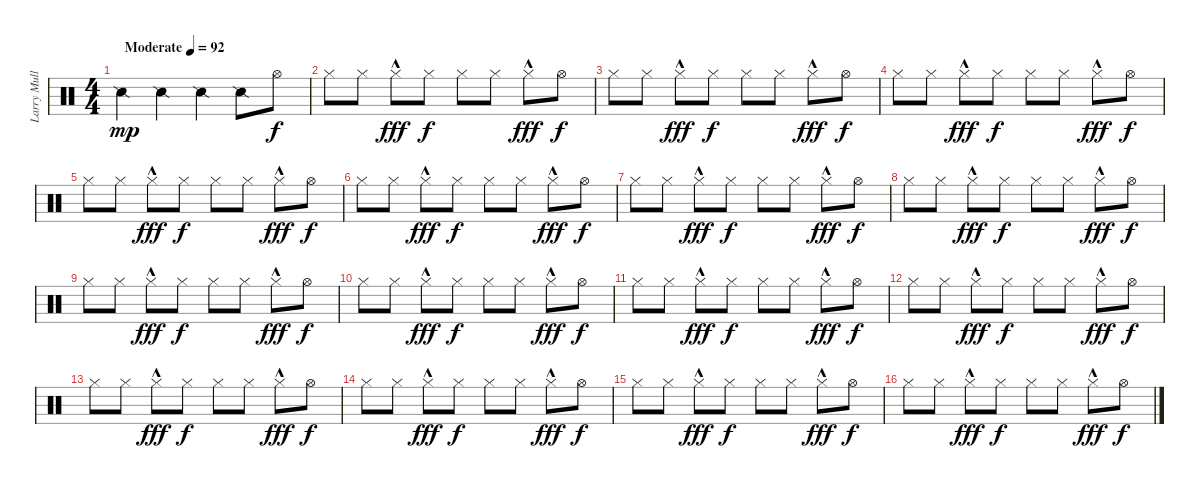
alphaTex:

\track ("Larry Mullen Junior" "Larry Mull") {instrument percussion}
\staff {score}
\articulation defaults
\ts (4 4)
\tempo (92 "Moderate")
\clef neutral
\ks c "Snare (side stick) 2".4{dy mp} "Snare (side stick) 2".4 "Snare (side stick) 2".4 "Snare (side stick) 2".8 "Hi-Hat (open)".8{dy f}
|
"Hi-Hat (closed)".8 "Hi-Hat (closed)".8 "Hi-Hat (closed)"{hac}.8{dy fff} "Hi-Hat (closed)".8{dy f} "Hi-Hat (closed)".8 "Hi-Hat (closed)".8 "Hi-Hat (closed)"{hac}.8{dy fff} "Hi-Hat (open)".8{dy f} |
"Hi-Hat (closed)".8 "Hi-Hat (closed)".8 "Hi-Hat (closed)"{hac}.8{dy fff} "Hi-Hat (closed)".8{dy f} "Hi-Hat (closed)".8 "Hi-Hat (closed)".8 "Hi-Hat (closed)"{hac}.8{dy fff} "Hi-Hat (open)".8{dy f} |
"Hi-Hat (closed)".8 "Hi-Hat (closed)".8 "Hi-Hat (closed)"{hac}.8{dy fff} "Hi-Hat (closed)".8{dy f} "Hi-Hat (closed)".8 "Hi-Hat (closed)".8 "Hi-Hat (closed)"{hac}.8{dy fff} "Hi-Hat (open)".8{dy f} |
"Hi-Hat (closed)".8 "Hi-Hat (closed)".8 "Hi-Hat (closed)"{hac}.8{dy fff} "Hi-Hat (closed)".8{dy f} "Hi-Hat (closed)".8 "Hi-Hat (closed)".8 "Hi-Hat (closed)"{hac}.8{dy fff} "Hi-Hat (open)".8{dy f} |
"Hi-Hat (closed)".8 "Hi-Hat (closed)".8 "Hi-Hat (closed)"{hac}.8{dy fff} "Hi-Hat (closed)".8{dy f} "Hi-Hat (closed)".8 "Hi-Hat (closed)".8 "Hi-Hat (closed)"{hac}.8{dy fff} "Hi-Hat (open)".8{dy f} |
"Hi-Hat (closed)".8 "Hi-Hat (closed)".8 "Hi-Hat (closed)"{hac}.8{dy fff} "Hi-Hat (closed)".8{dy f} "Hi-Hat (closed)".8 "Hi-Hat (closed)".8 "Hi-Hat (closed)"{hac}.8{dy fff} "Hi-Hat (open)".8{dy f} |
"Hi-Hat (closed)".8 "Hi-Hat (closed)".8 "Hi-Hat (closed)"{hac}.8{dy fff} "Hi-Hat (closed)".8{dy f} "Hi-Hat (closed)".8 "Hi-Hat (closed)".8 "Hi-Hat (closed)"{hac}.8{dy fff} "Hi-Hat (open)".8{dy f} |
"Hi-Hat (closed)".8 "Hi-Hat (closed)".8 "Hi-Hat (closed)"{hac}.8{dy fff} "Hi-Hat (closed)".8{dy f} "Hi-Hat (closed)".8 "Hi-Hat (closed)".8 "Hi-Hat (closed)"{hac}.8{dy fff} "Hi-Hat (open)".8{dy f} |
"Hi-Hat (closed)".8 "Hi-Hat (closed)".8 "Hi-Hat (closed)"{hac}.8{dy fff} "Hi-Hat (closed)".8{dy f} "Hi-Hat (closed)".8 "Hi-Hat (closed)".8 "Hi-Hat (closed)"{hac}.8{dy fff} "Hi-Hat (open)".8{dy f} |
"Hi-Hat (closed)".8 "Hi-Hat (closed)".8 "Hi-Hat (closed)"{hac}.8{dy fff} "Hi-Hat (closed)".8{dy f} "Hi-Hat (closed)".8 "Hi-Hat (closed)".8 "Hi-Hat (closed)"{hac}.8{dy fff} "Hi-Hat (open)".8{dy f} |
"Hi-Hat (closed)".8 "Hi-Hat (closed)".8 "Hi-Hat (closed)"{hac}.8{dy fff} "Hi-Hat (closed)".8{dy f} "Hi-Hat (closed)".8 "Hi-Hat (closed)".8 "Hi-Hat (closed)"{hac}.8{dy fff} "Hi-Hat (open)".8{dy f} |
"Hi-Hat (closed)".8 "Hi-Hat (closed)".8 "Hi-Hat (closed)"{hac}.8{dy fff} "Hi-Hat (closed)".8{dy f} "Hi-Hat (closed)".8 "Hi-Hat (closed)".8 "Hi-Hat (closed)"{hac}.8{dy fff} "Hi-Hat (open)".8{dy f} |
"Hi-Hat (closed)".8 "Hi-Hat (closed)".8 "Hi-Hat (closed)"{hac}.8{dy fff} "Hi-Hat (closed)".8{dy f} "Hi-Hat (closed)".8 "Hi-Hat (closed)".8 "Hi-Hat (closed)"{hac}.8{dy fff} "Hi-Hat (open)".8{dy f} |
"Hi-Hat (closed)".8 "Hi-Hat (closed)".8 "Hi-Hat (closed)"{hac}.8{dy fff} "Hi-Hat (closed)".8{dy f} "Hi-Hat (closed)".8 "Hi-Hat (closed)".8 "Hi-Hat (closed)"{hac}.8{dy fff} "Hi-Hat (open)".8{dy f} |
"Hi-Hat (closed)".8 "Hi-Hat (closed)".8 "Hi-Hat (closed)"{hac}.8{dy fff} "Hi-Hat (closed)".8{dy f} "Hi-Hat (closed)".8 "Hi-Hat (closed)".8 "Hi-Hat (closed)"{hac}.8{dy fff} "Hi-Hat (open)".8{dy f}
